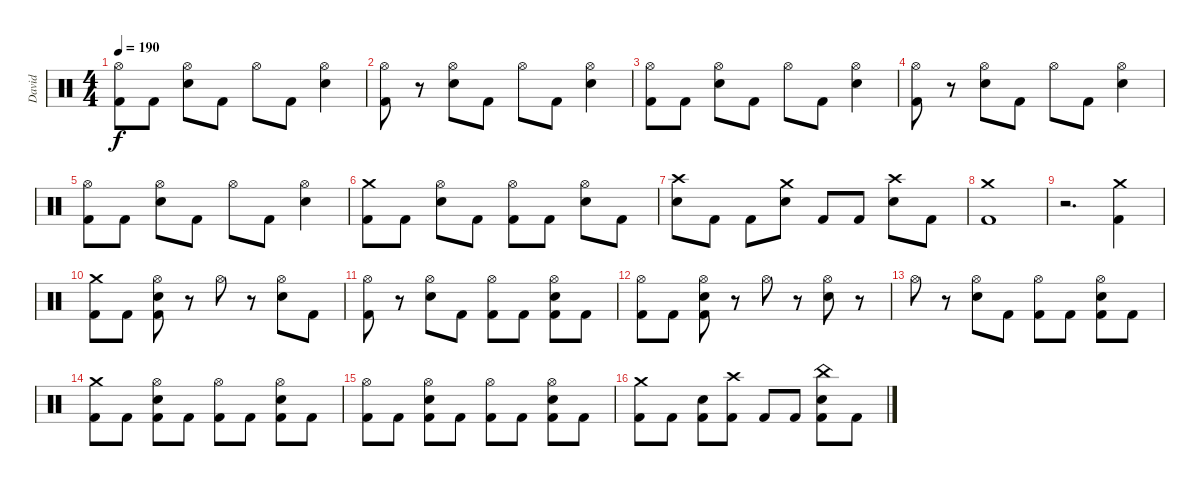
\track ("David" "David") {instrument percussion}
\staff {score}
\articulation defaults
\ts (4 4)
\tempo 190
\clef neutral
\ks c
("Hi-Hat (open)" "Kick (hit) 2").8{dy f} "Kick (hit) 2".8 ("Hi-Hat (open)" "Electric Snare (hit)").8 "Kick (hit) 2".8 "Hi-Hat (open)".8 "Kick (hit) 2".8 ("Hi-Hat (open)" "Electric Snare (hit)").4 |
("Hi-Hat (open)" "Kick (hit) 2").8 r.8 ("Hi-Hat (open)" "Electric Snare (hit)").8 "Kick (hit) 2".8 "Hi-Hat (open)".8 "Kick (hit) 2".8 ("Hi-Hat (open)" "Electric Snare (hit)").4 |
("Hi-Hat (open)" "Kick (hit) 2").8 "Kick (hit) 2".8 ("Hi-Hat (open)" "Electric Snare (hit)").8 "Kick (hit) 2".8 "Hi-Hat (open)".8 "Kick (hit) 2".8 ("Hi-Hat (open)" "Electric Snare (hit)").4 |
("Hi-Hat (open)" "Kick (hit) 2").8 r.8 ("Hi-Hat (open)" "Electric Snare (hit)").8 "Kick (hit) 2".8 "Hi-Hat (open)".8 "Kick (hit) 2".8 ("Hi-Hat (open)" "Electric Snare (hit)").4 |
("Hi-Hat (open)" "Kick (hit) 2").8 "Kick (hit) 2".8 ("Hi-Hat (open)" "Electric Snare (hit)").8 "Kick (hit) 2".8 "Hi-Hat (open)".8 "Kick (hit) 2".8 ("Hi-Hat (open)" "Electric Snare (hit)").4 |
("Crash medium (hit)" "Kick (hit) 2").8 "Kick (hit) 2".8 ("Hi-Hat (open)" "Electric Snare (hit)").8 "Kick (hit) 2".8 ("Hi-Hat (open)" "Kick (hit) 2").8 "Kick (hit) 2".8 ("Hi-Hat (open)" "Electric Snare (hit)").8 "Kick (hit) 2".8 |
("Crash high (hit)" "Electric Snare (hit)").8 "Kick (hit) 2".8 "Kick (hit) 2".8 ("Crash medium (hit)" "Electric Snare (hit)").8 "Kick (hit) 2".8 "Kick (hit) 2".8 ("Crash high (hit)" "Electric Snare (hit)").8 "Kick (hit) 2".8 |
("Crash medium (hit)" "Kick (hit) 2").1 |
r.2{d} ("Crash medium (hit)" "Kick (hit) 2").4 |
("Crash medium (hit)" "Kick (hit) 2").8 "Kick (hit) 2".8 ("Hi-Hat (open)" "Electric Snare (hit)" "Kick (hit) 2").8 r.8 "Hi-Hat (open)".8 r.8 ("Hi-Hat (open)" "Electric Snare (hit)").8 "Kick (hit) 2".8 |
("Hi-Hat (open)" "Kick (hit) 2").8 r.8 ("Hi-Hat (open)" "Electric Snare (hit)").8 "Kick (hit) 2".8 ("Hi-Hat (open)" "Kick (hit) 2").8 "Kick (hit) 2".8 ("Hi-Hat (open)" "Electric Snare (hit)" "Kick (hit) 2").8 "Kick (hit) 2".8 |
("Hi-Hat (open)" "Kick (hit) 2").8 "Kick (hit) 2".8 ("Hi-Hat (open)" "Electric Snare (hit)" "Kick (hit) 2").8 r.8 "Hi-Hat (open)".8 r.8 ("Hi-Hat (open)" "Electric Snare (hit)").8 r.8 |
"Hi-Hat (open)".8 r.8 ("Hi-Hat (open)" "Electric Snare (hit)").8 "Kick (hit) 2".8 ("Hi-Hat (open)" "Kick (hit) 2").8 "Kick (hit) 2".8 ("Hi-Hat (open)" "Electric Snare (hit)" "Kick (hit) 2").8 "Kick (hit) 2".8 |
("Crash medium (hit)" "Kick (hit) 2").8 "Kick (hit) 2".8 ("Hi-Hat (open)" "Electric Snare (hit)" "Kick (hit) 2").8 "Kick (hit) 2".8 ("Hi-Hat (open)" "Kick (hit) 2").8 "Kick (hit) 2".8 ("Hi-Hat (open)" "Electric Snare (hit)" "Kick (hit) 2").8 "Kick (hit) 2".8 |
("Hi-Hat (open)" "Kick (hit) 2").8 "Kick (hit) 2".8 ("Hi-Hat (open)" "Electric Snare (hit)" "Kick (hit) 2").8 "Kick (hit) 2".8 ("Hi-Hat (open)" "Kick (hit) 2").8 "Kick (hit) 2".8 ("Hi-Hat (open)" "Electric Snare (hit)" "Kick (hit) 2").8 "Kick (hit) 2".8 |
("Crash medium (hit)" "Kick (hit) 2").8 "Kick (hit) 2".8 ("Electric Snare (hit)" "Kick (hit) 2").8 ("Crash high (hit)" "Kick (hit) 2").8 "Kick (hit) 2".8 "Kick (hit) 2".8 ("China (hit)" "Electric Snare (hit)" "Kick (hit) 2").8 "Kick (hit) 2".8
